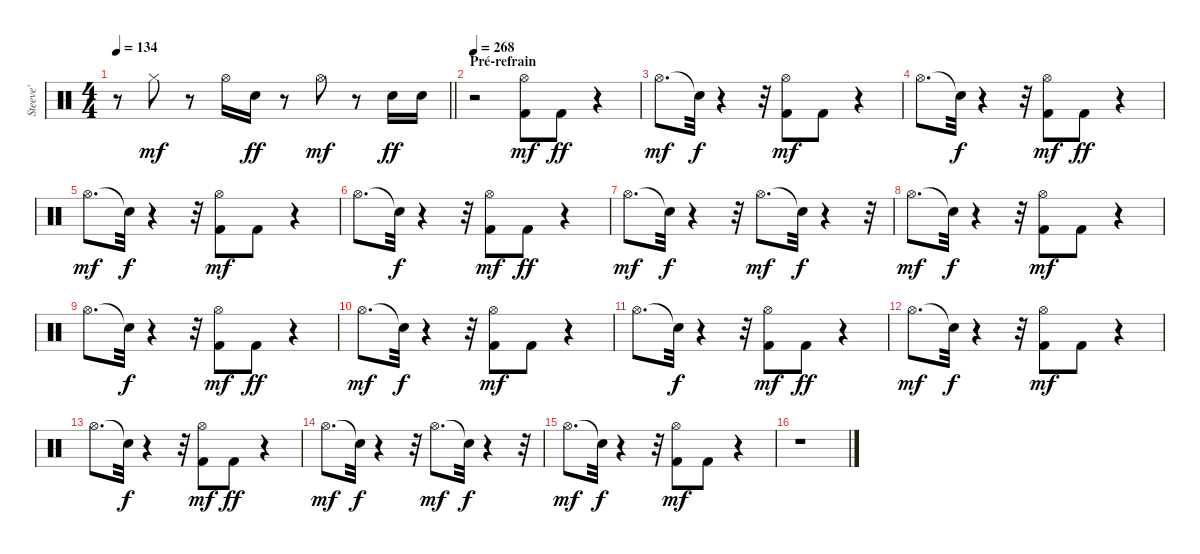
\track ("Steeve'" "Steeve'") {instrument percussion}
\staff {score}
\articulation defaults
\ts (4 4)
\tempo 134
\clef neutral
\barLineRight lightlight
\ks c
r.8{dy mf} "Hi-Hat (closed)".8 r.8 "Hi-Hat (open)".16 "Electric Snare (hit)".16{dy ff} r.8 "Hi-Hat (open)".8{dy mf} r.8 "Electric Snare (hit)".16{dy ff} "Electric Snare (hit)".16 |
\section ("" "Pré-refrain")
\tempo 268
r.2 ("Kick (hit) 2" "Hi-Hat (open)").8{dy mf} "Kick (hit) 2".8{dy ff} r.4 |
"Hi-Hat (open)".8{d dy mf} "Snare (hit)"{t}.32{dy f} r.4 r.32 ("Kick (hit) 2" "Hi-Hat (open)").8{dy mf} "Kick (hit) 2".8 r.4 |
"Hi-Hat (open)".8{d} "Snare (hit)"{t}.32{dy f} r.4 r.32 ("Kick (hit) 2" "Hi-Hat (open)").8{dy mf} "Kick (hit) 2".8{dy ff} r.4 |
"Hi-Hat (open)".8{d dy mf} "Snare (hit)"{t}.32{dy f} r.4 r.32 ("Kick (hit) 2" "Hi-Hat (open)").8{dy mf} "Kick (hit) 2".8 r.4 |
"Hi-Hat (open)".8{d} "Snare (hit)"{t}.32{dy f} r.4 r.32 ("Kick (hit) 2" "Hi-Hat (open)").8{dy mf} "Kick (hit) 2".8{dy ff} r.4 |
"Hi-Hat (open)".8{d dy mf} "Snare (hit)"{t}.32{dy f} r.4 r.32 "Hi-Hat (open)".8{d dy mf} "Snare (hit)"{t}.32{dy f} r.4 r.32 |
"Hi-Hat (open)".8{d dy mf} "Snare (hit)"{t}.32{dy f} r.4 r.32 ("Kick (hit) 2" "Hi-Hat (open)").8{dy mf} "Kick (hit) 2".8 r.4 |
"Hi-Hat (open)".8{d} "Snare (hit)"{t}.32{dy f} r.4 r.32 ("Kick (hit) 2" "Hi-Hat (open)").8{dy mf} "Kick (hit) 2".8{dy ff} r.4 |
"Hi-Hat (open)".8{d dy mf} "Snare (hit)"{t}.32{dy f} r.4 r.32 ("Kick (hit) 2" "Hi-Hat (open)").8{dy mf} "Kick (hit) 2".8 r.4 |
"Hi-Hat (open)".8{d} "Snare (hit)"{t}.32{dy f} r.4 r.32 ("Kick (hit) 2" "Hi-Hat (open)").8{dy mf} "Kick (hit) 2".8{dy ff} r.4 |
"Hi-Hat (open)".8{d dy mf} "Snare (hit)"{t}.32{dy f} r.4 r.32 ("Kick (hit) 2" "Hi-Hat (open)").8{dy mf} "Kick (hit) 2".8 r.4 |
"Hi-Hat (open)".8{d} "Snare (hit)"{t}.32{dy f} r.4 r.32 ("Kick (hit) 2" "Hi-Hat (open)").8{dy mf} "Kick (hit) 2".8{dy ff} r.4 |
"Hi-Hat (open)".8{d dy mf} "Snare (hit)"{t}.32{dy f} r.4 r.32 "Hi-Hat (open)".8{d dy mf} "Snare (hit)"{t}.32{dy f} r.4 r.32 |
"Hi-Hat (open)".8{d dy mf} "Snare (hit)"{t}.32{dy f} r.4 r.32 ("Kick (hit) 2" "Hi-Hat (open)").8{dy mf} "Kick (hit) 2".8 r.4 |
r.1
